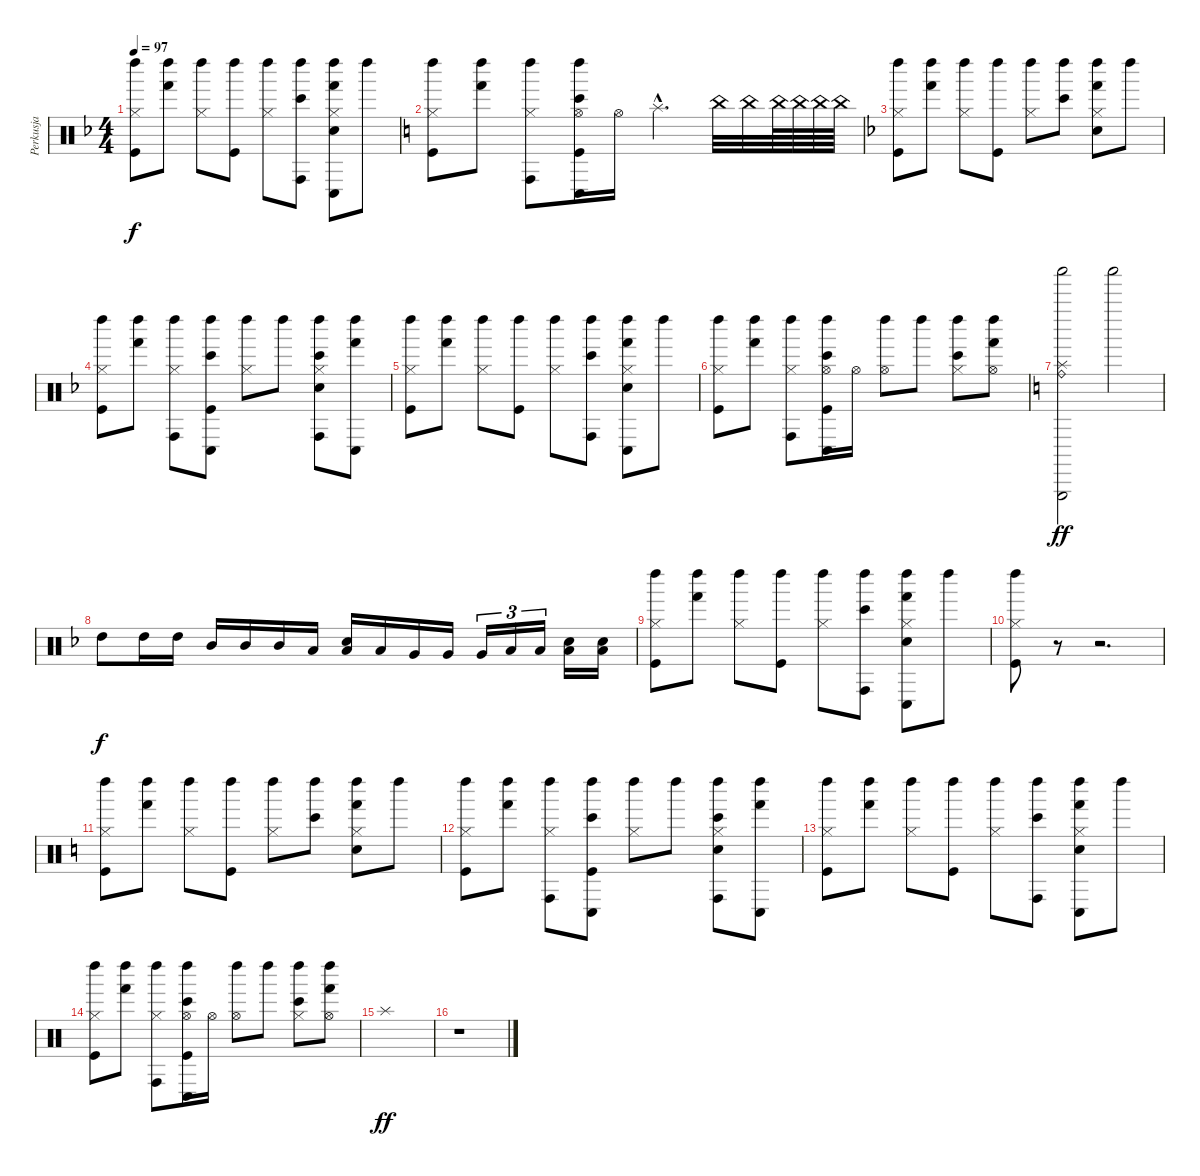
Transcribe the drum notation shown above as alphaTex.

\track ("Perkusja" "Perkusja") {instrument percussion}
\staff {score}
\articulation defaults
\ts (4 4)
\tempo 97
\clef neutral
\ks f
("Left Maraca (hit)" "Hi-Hat (closed)" "Kick (hit)").8{dy f} ("Left Maraca (hit)" "Hand (hit)").8 ("Left Maraca (hit)" "Hi-Hat (closed)").8 ("Left Maraca (hit)" "Kick (hit)").8 ("Left Maraca (hit)" "Hi-Hat (closed)").8 ("Left Maraca (hit)" "Conga high (hit)" "Bongo High (hit)").8 ("Left Maraca (hit)" "Conga low (hit)" "Hand (hit)" "Hi-Hat (closed)" "Snare (hit) 2").8 "Left Maraca (hit)".8 |
\ks c
("Left Maraca (hit)" "Hi-Hat (closed)" "Kick (hit)").8 ("Left Maraca (hit)" "Hand (hit)").8 ("Left Maraca (hit)" "Conga high (hit)" "Hi-Hat (closed)").8 ("Left Maraca (hit)" "Conga low (hit)" "Bongo High (hit)" "Hi-Hat (open)" "Kick (hit)").16 "Hi-Hat (open)".16 "Splash (hit)"{hac}.4{d} "China (hit)".32 "China (hit)".32 "China (hit)".64 "China (hit)".64 "China (hit)".64 "China (hit)".64 |
\ks f
("Left Maraca (hit)" "Hi-Hat (closed)" "Kick (hit)").8 ("Left Maraca (hit)" "Hand (hit)").8 ("Left Maraca (hit)" "Hi-Hat (closed)").8 ("Left Maraca (hit)" "Kick (hit)").8 ("Left Maraca (hit)" "Hi-Hat (closed)").8 ("Left Maraca (hit)" "Bongo High (hit)").8 ("Left Maraca (hit)" "Hand (hit)" "Hi-Hat (closed)" "Snare (hit) 2").8 "Left Maraca (hit)".8 |
("Left Maraca (hit)" "Hi-Hat (closed)" "Kick (hit)").8 ("Left Maraca (hit)" "Hand (hit)").8 ("Left Maraca (hit)" "Conga high (hit)" "Hi-Hat (closed)").8 ("Left Maraca (hit)" "Conga low (hit)" "Bongo High (hit)" "Kick (hit)").8 ("Left Maraca (hit)" "Hi-Hat (closed)").8 "Left Maraca (hit)".8 ("Left Maraca (hit)" "Conga high (hit)" "Bongo High (hit)" "Hi-Hat (closed)" "Snare (hit) 2").8 ("Left Maraca (hit)" "Conga low (hit)" "Hand (hit)").8 |
("Left Maraca (hit)" "Hi-Hat (closed)" "Kick (hit)").8 ("Left Maraca (hit)" "Hand (hit)").8 ("Left Maraca (hit)" "Hi-Hat (closed)").8 ("Left Maraca (hit)" "Kick (hit)").8 ("Left Maraca (hit)" "Hi-Hat (closed)").8 ("Left Maraca (hit)" "Conga high (hit)" "Bongo High (hit)").8 ("Left Maraca (hit)" "Conga low (hit)" "Hand (hit)" "Hi-Hat (closed)" "Snare (hit) 2").8 "Left Maraca (hit)".8 |
("Left Maraca (hit)" "Hi-Hat (closed)" "Kick (hit)").8 ("Left Maraca (hit)" "Hand (hit)").8 ("Left Maraca (hit)" "Conga high (hit)" "Hi-Hat (closed)").8 ("Left Maraca (hit)" "Conga low (hit)" "Bongo High (hit)" "Hi-Hat (open)" "Kick (hit)").16 "Hi-Hat (open)".16 ("Left Maraca (hit)" "Hi-Hat (open)").8 "Left Maraca (hit)".8 ("Left Maraca (hit)" "Bongo High (hit)" "Hi-Hat (closed)").8 ("Left Maraca (hit)" "Hand (hit)" "Hi-Hat (open)").8 |
\ks c
("Triangle (hit)" "Ride (bell)" "Splash (hit)" "Shaker (hit)").2{dy ff} "Shaker (hit)".2 |
\ks f "High Tom (hit)".8{dy f} "High Tom (hit)".16 "High Tom (hit)".16 "Mid Tom (hit)".16 "Mid Tom (hit)".16 "Mid Tom (hit)".16 "Low Tom (hit)".16
("Snare (hit) 2" "Low Tom (hit)").16 "Low Tom (hit)".16 "Very Low Tom (hit)".16 "Very Low Tom (hit)".16 "Very Low Tom (hit)".16{tu (3 2)} "Low Floor Tom (hit)".16{tu (3 2)} "Low Floor Tom (hit)".16{tu (3 2)} ("Snare (hit) 2" "Low Floor Tom (hit)").16 ("Snare (hit) 2" "Low Floor Tom (hit)").16 |
("Left Maraca (hit)" "Hi-Hat (closed)" "Kick (hit)").8 ("Left Maraca (hit)" "Hand (hit)").8 ("Left Maraca (hit)" "Hi-Hat (closed)").8 ("Left Maraca (hit)" "Kick (hit)").8 ("Left Maraca (hit)" "Hi-Hat (closed)").8 ("Left Maraca (hit)" "Conga high (hit)" "Bongo High (hit)").8 ("Left Maraca (hit)" "Conga low (hit)" "Hand (hit)" "Hi-Hat (closed)" "Snare (hit) 2").8 "Left Maraca (hit)".8 |
("Left Maraca (hit)" "Hi-Hat (closed)" "Kick (hit)").8 r.8 r.2{d} |
\ks c
("Left Maraca (hit)" "Hi-Hat (closed)" "Kick (hit)").8 ("Left Maraca (hit)" "Hand (hit)").8 ("Left Maraca (hit)" "Hi-Hat (closed)").8 ("Left Maraca (hit)" "Kick (hit)").8 ("Left Maraca (hit)" "Hi-Hat (closed)").8 ("Left Maraca (hit)" "Bongo High (hit)").8 ("Left Maraca (hit)" "Hand (hit)" "Hi-Hat (closed)" "Snare (hit) 2").8 "Left Maraca (hit)".8 |
("Left Maraca (hit)" "Hi-Hat (closed)" "Kick (hit)").8 ("Left Maraca (hit)" "Hand (hit)").8 ("Left Maraca (hit)" "Conga high (hit)" "Hi-Hat (closed)").8 ("Left Maraca (hit)" "Conga low (hit)" "Bongo High (hit)" "Kick (hit)").8 ("Left Maraca (hit)" "Hi-Hat (closed)").8 "Left Maraca (hit)".8 ("Left Maraca (hit)" "Conga high (hit)" "Bongo High (hit)" "Hi-Hat (closed)" "Snare (hit) 2").8 ("Left Maraca (hit)" "Conga low (hit)" "Hand (hit)").8 |
("Left Maraca (hit)" "Hi-Hat (closed)" "Kick (hit)").8 ("Left Maraca (hit)" "Hand (hit)").8 ("Left Maraca (hit)" "Hi-Hat (closed)").8 ("Left Maraca (hit)" "Kick (hit)").8 ("Left Maraca (hit)" "Hi-Hat (closed)").8 ("Left Maraca (hit)" "Conga high (hit)" "Bongo High (hit)").8 ("Left Maraca (hit)" "Conga low (hit)" "Hand (hit)" "Hi-Hat (closed)" "Snare (hit) 2").8 "Left Maraca (hit)".8 |
("Left Maraca (hit)" "Hi-Hat (closed)" "Kick (hit)").8 ("Left Maraca (hit)" "Hand (hit)").8 ("Left Maraca (hit)" "Conga high (hit)" "Hi-Hat (closed)").8 ("Left Maraca (hit)" "Conga low (hit)" "Bongo High (hit)" "Hi-Hat (open)" "Kick (hit)").16 "Hi-Hat (open)".16 ("Left Maraca (hit)" "Hi-Hat (open)").8 "Left Maraca (hit)".8 ("Left Maraca (hit)" "Bongo High (hit)" "Hi-Hat (closed)").8 ("Left Maraca (hit)" "Hand (hit)" "Hi-Hat (open)").8 |
"Splash (hit)".1{dy ff} |
r.1
